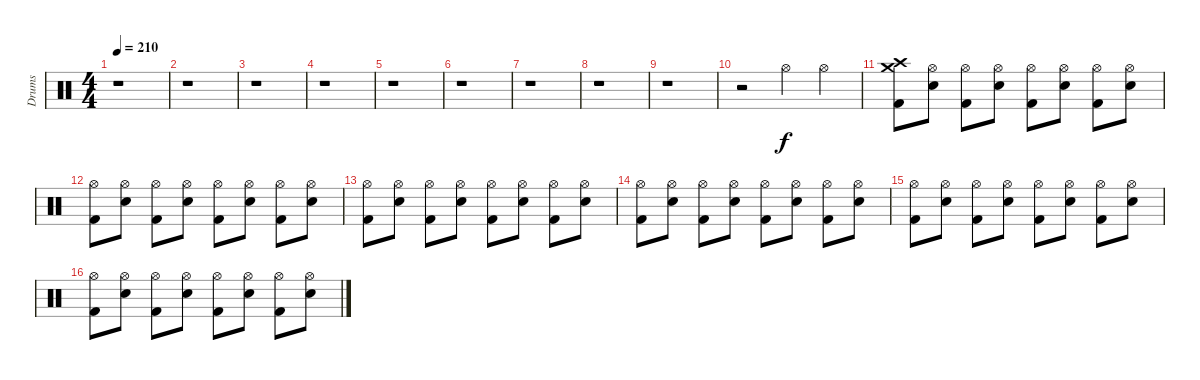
\track ("Drums" "Drums") {instrument percussion}
\staff {score}
\articulation defaults
\ts (4 4)
\tempo 210
\clef neutral
\ks c
r.1{dy f} |
r.1 |
r.1 |
r.1 |
r.1 |
r.1 |
r.1 |
r.1 |
r.1 |
r.2 "Hi-Hat (open)".4 "Hi-Hat (open)".4 |
("Crash high (hit)" "Crash medium (hit)" "Kick (hit) 2").8 ("Hi-Hat (open)" "Snare (hit) 2").8 ("Hi-Hat (open)" "Kick (hit) 2").8 ("Hi-Hat (open)" "Snare (hit) 2").8 ("Hi-Hat (open)" "Kick (hit) 2").8 ("Hi-Hat (open)" "Snare (hit) 2").8 ("Hi-Hat (open)" "Kick (hit) 2").8 ("Hi-Hat (open)" "Snare (hit) 2").8 |
("Hi-Hat (open)" "Kick (hit) 2").8 ("Hi-Hat (open)" "Snare (hit) 2").8 ("Hi-Hat (open)" "Kick (hit) 2").8 ("Hi-Hat (open)" "Snare (hit) 2").8 ("Hi-Hat (open)" "Kick (hit) 2").8 ("Hi-Hat (open)" "Snare (hit) 2").8 ("Hi-Hat (open)" "Kick (hit) 2").8 ("Hi-Hat (open)" "Snare (hit) 2").8 |
("Hi-Hat (open)" "Kick (hit) 2").8 ("Hi-Hat (open)" "Snare (hit) 2").8 ("Hi-Hat (open)" "Kick (hit) 2").8 ("Hi-Hat (open)" "Snare (hit) 2").8 ("Hi-Hat (open)" "Kick (hit) 2").8 ("Hi-Hat (open)" "Snare (hit) 2").8 ("Hi-Hat (open)" "Kick (hit) 2").8 ("Hi-Hat (open)" "Snare (hit) 2").8 |
("Hi-Hat (open)" "Kick (hit) 2").8 ("Hi-Hat (open)" "Snare (hit) 2").8 ("Hi-Hat (open)" "Kick (hit) 2").8 ("Hi-Hat (open)" "Snare (hit) 2").8 ("Hi-Hat (open)" "Kick (hit) 2").8 ("Hi-Hat (open)" "Snare (hit) 2").8 ("Hi-Hat (open)" "Kick (hit) 2").8 ("Hi-Hat (open)" "Snare (hit) 2").8 |
("Hi-Hat (open)" "Kick (hit) 2").8 ("Hi-Hat (open)" "Snare (hit) 2").8 ("Hi-Hat (open)" "Kick (hit) 2").8 ("Hi-Hat (open)" "Snare (hit) 2").8 ("Hi-Hat (open)" "Kick (hit) 2").8 ("Hi-Hat (open)" "Snare (hit) 2").8 ("Hi-Hat (open)" "Kick (hit) 2").8 ("Hi-Hat (open)" "Snare (hit) 2").8 |
("Hi-Hat (open)" "Kick (hit) 2").8 ("Hi-Hat (open)" "Snare (hit) 2").8 ("Hi-Hat (open)" "Kick (hit) 2").8 ("Hi-Hat (open)" "Snare (hit) 2").8 ("Hi-Hat (open)" "Kick (hit) 2").8 ("Hi-Hat (open)" "Snare (hit) 2").8 ("Hi-Hat (open)" "Kick (hit) 2").8 ("Hi-Hat (open)" "Snare (hit) 2").8
